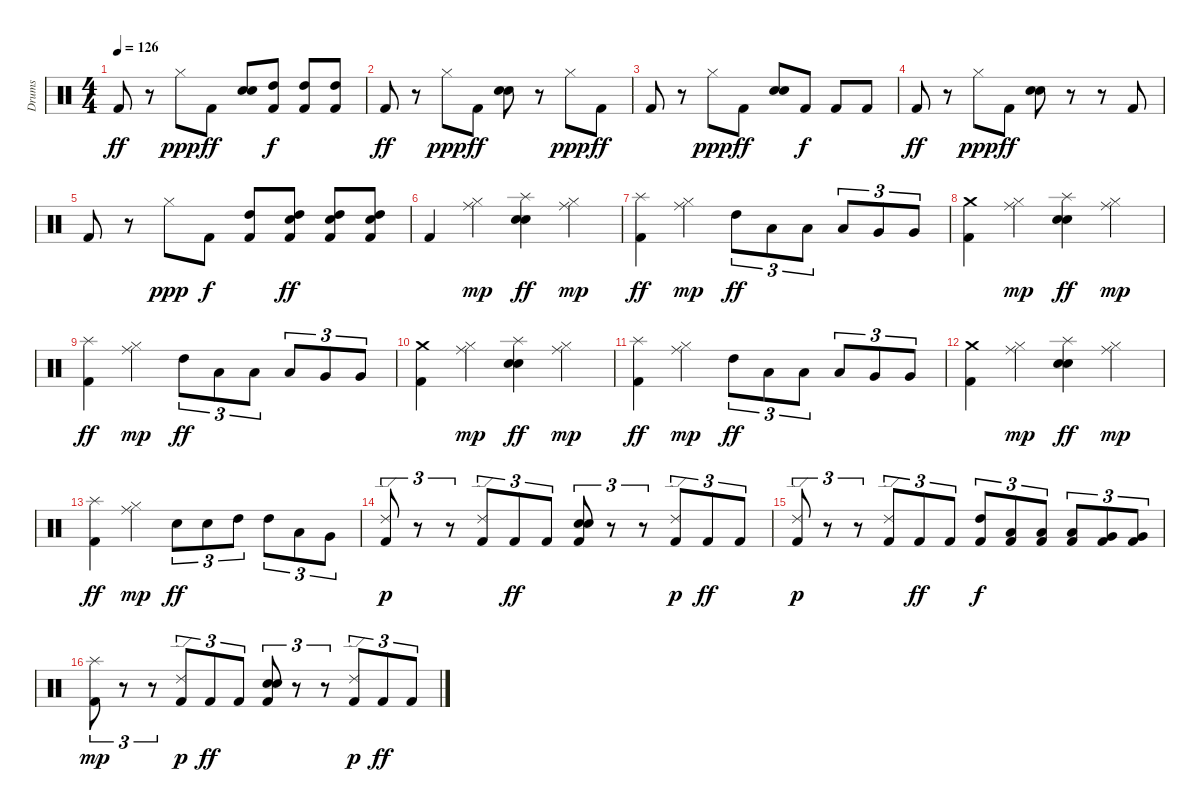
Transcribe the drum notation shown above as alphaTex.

\track ("Drums" "Drums") {instrument percussion}
\staff {score}
\articulation defaults
\ts (4 4)
\tempo 126
\clef neutral
\ks c "Kick (hit) 2".8{dy ff}
r.8 "Hi-Hat (closed)".8{dy ppp} "Kick (hit) 2".8{dy ff} ("Electric Snare (hit)" "Electric Snare (hit)").8 ("High Tom (hit)" "Kick (hit) 2").8{dy f} ("High Tom (hit)" "Kick (hit) 2").8 ("High Tom (hit)" "Kick (hit) 2").8 |
"Kick (hit) 2".8{dy ff} r.8 "Hi-Hat (closed)".8{dy ppp} "Kick (hit) 2".8{dy ff} ("Electric Snare (hit)" "Electric Snare (hit)").8 r.8 "Hi-Hat (closed)".8{dy ppp} "Kick (hit) 2".8{dy ff} |
"Kick (hit) 2".8 r.8 "Hi-Hat (closed)".8{dy ppp} "Kick (hit) 2".8{dy ff} ("Electric Snare (hit)" "Electric Snare (hit)").8 "Kick (hit) 2".8{dy f} "Kick (hit) 2".8 "Kick (hit) 2".8 |
"Kick (hit) 2".8{dy ff} r.8 "Hi-Hat (closed)".8{dy ppp} "Kick (hit) 2".8{dy ff} ("Electric Snare (hit)" "Electric Snare (hit)").8 r.8 r.8 "Kick (hit) 2".8 |
"Kick (hit) 2".8 r.8 "Hi-Hat (closed)".8{dy ppp} "Kick (hit) 2".8{dy f} ("High Tom (hit)" "Kick (hit) 2").8 ("High Tom (hit)" "Electric Snare (hit)" "Kick (hit) 2").8{dy ff} ("High Tom (hit)" "Electric Snare (hit)" "Kick (hit) 2").8 ("High Tom (hit)" "Electric Snare (hit)" "Kick (hit) 2").8 |
"Kick (hit) 2".4 ("Ride (middle)" "Hi-Hat (closed)").4{dy mp} ("Electric Snare (hit)" "Electric Snare (hit)" "Splash (hit)").4{dy ff} ("Ride (middle)" "Hi-Hat (closed)").4{dy mp} |
("Splash (hit)" "Kick (hit) 2").4{dy ff} ("Ride (middle)" "Hi-Hat (closed)").4{dy mp} "High Tom (hit)".8{tu (3 2) dy ff} "Low Tom (hit)".8{tu (3 2)} "Low Tom (hit)".8{tu (3 2)} "Low Tom (hit)".8{tu (3 2)} "Very Low Tom (hit)".8{tu (3 2)} "Very Low Tom (hit)".8{tu (3 2)} |
("Crash medium (hit)" "Kick (hit) 2").4 ("Ride (middle)" "Hi-Hat (closed)").4{dy mp} ("Electric Snare (hit)" "Electric Snare (hit)" "Splash (hit)").4{dy ff} ("Ride (middle)" "Hi-Hat (closed)").4{dy mp} |
("Splash (hit)" "Kick (hit) 2").4{dy ff} ("Ride (middle)" "Hi-Hat (closed)").4{dy mp} "High Tom (hit)".8{tu (3 2) dy ff} "Low Tom (hit)".8{tu (3 2)} "Low Tom (hit)".8{tu (3 2)} "Low Tom (hit)".8{tu (3 2)} "Very Low Tom (hit)".8{tu (3 2)} "Very Low Tom (hit)".8{tu (3 2)} |
("Crash medium (hit)" "Kick (hit) 2").4 ("Ride (middle)" "Hi-Hat (closed)").4{dy mp} ("Electric Snare (hit)" "Electric Snare (hit)" "Splash (hit)").4{dy ff} ("Ride (middle)" "Hi-Hat (closed)").4{dy mp} |
("Splash (hit)" "Kick (hit) 2").4{dy ff} ("Ride (middle)" "Hi-Hat (closed)").4{dy mp} "High Tom (hit)".8{tu (3 2) dy ff} "Low Tom (hit)".8{tu (3 2)} "Low Tom (hit)".8{tu (3 2)} "Low Tom (hit)".8{tu (3 2)} "Very Low Tom (hit)".8{tu (3 2)} "Very Low Tom (hit)".8{tu (3 2)} |
("Crash medium (hit)" "Kick (hit) 2").4 ("Ride (middle)" "Hi-Hat (closed)").4{dy mp} ("Electric Snare (hit)" "Electric Snare (hit)" "Splash (hit)").4{dy ff} ("Ride (middle)" "Hi-Hat (closed)").4{dy mp} |
("Splash (hit)" "Kick (hit) 2").4{dy ff} ("Ride (middle)" "Hi-Hat (closed)").4{dy mp} "Electric Snare (hit)".8{tu (3 2) dy ff} "Electric Snare (hit)".8{tu (3 2)} "High Tom (hit)".8{tu (3 2)} "High Tom (hit)".8{tu (3 2)} "Low Tom (hit)".8{tu (3 2)} "Very Low Tom (hit)".8{tu (3 2)} |
("Kick (hit) 2" "Ride (edge) 2").8{tu (3 2) dy p} r.8{tu (3 2)} r.8{tu (3 2)} ("Kick (hit) 2" "Ride (edge) 2").8{tu (3 2)} "Kick (hit) 2".8{tu (3 2) dy ff} "Kick (hit) 2".8{tu (3 2)} ("Kick (hit) 2" "Electric Snare (hit)" "Electric Snare (hit)").8{tu (3 2)} r.8{tu (3 2)} r.8{tu (3 2)} ("Kick (hit) 2" "Ride (edge) 2").8{tu (3 2) dy p} "Kick (hit) 2".8{tu (3 2) dy ff} "Kick (hit) 2".8{tu (3 2)} |
("Kick (hit) 2" "Ride (edge) 2").8{tu (3 2) dy p} r.8{tu (3 2)} r.8{tu (3 2)} ("Kick (hit) 2" "Ride (edge) 2").8{tu (3 2)} "Kick (hit) 2".8{tu (3 2) dy ff} "Kick (hit) 2".8{tu (3 2)} ("Kick (hit) 2" "High Tom (hit)").8{tu (3 2) dy f} ("Kick (hit) 2" "Low Tom (hit)").8{tu (3 2)} ("Kick (hit) 2" "Low Tom (hit)").8{tu (3 2)} ("Kick (hit) 2" "Low Tom (hit)").8{tu (3 2)} ("Kick (hit) 2" "Very Low Tom (hit)").8{tu (3 2)} ("Kick (hit) 2" "Very Low Tom (hit)").8{tu (3 2)} |
("Kick (hit) 2" "Splash (hit)").8{tu (3 2) dy mp} r.8{tu (3 2)} r.8{tu (3 2)} ("Kick (hit) 2" "Ride (edge) 2").8{tu (3 2) dy p} "Kick (hit) 2".8{tu (3 2) dy ff} "Kick (hit) 2".8{tu (3 2)} ("Kick (hit) 2" "Electric Snare (hit)" "Electric Snare (hit)").8{tu (3 2)} r.8{tu (3 2)} r.8{tu (3 2)} ("Kick (hit) 2" "Ride (edge) 2").8{tu (3 2) dy p} "Kick (hit) 2".8{tu (3 2) dy ff} "Kick (hit) 2".8{tu (3 2)}
